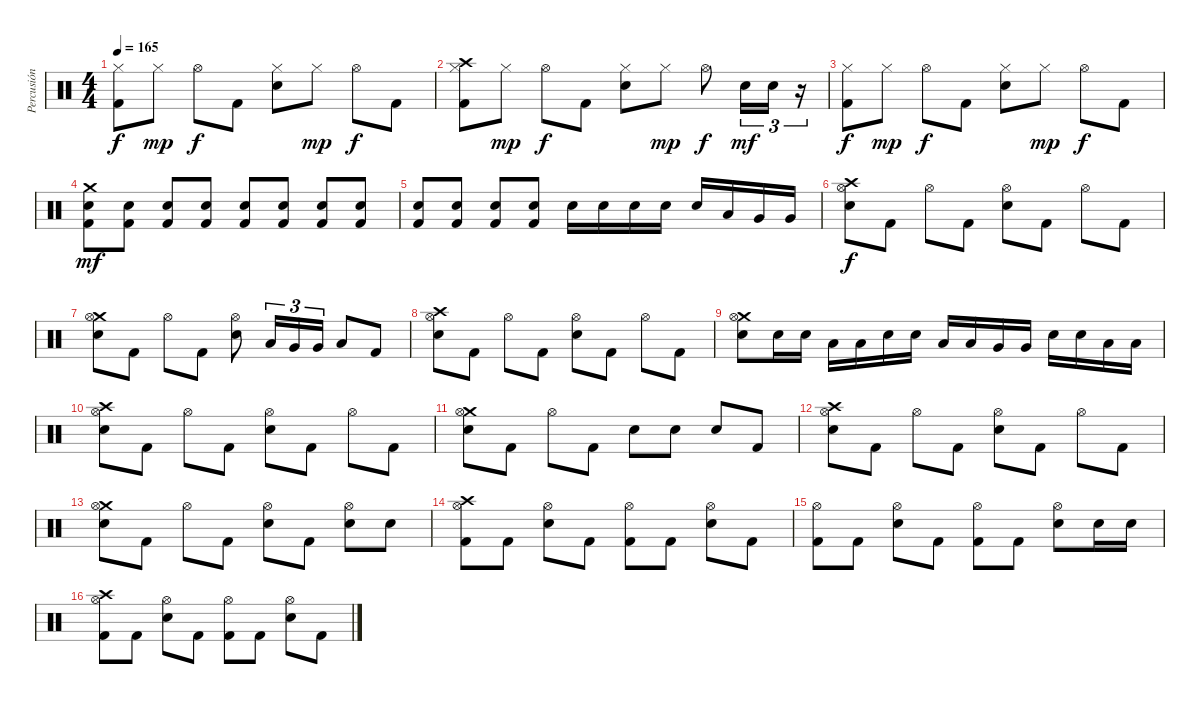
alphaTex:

\track ("Percusión" "Percusión") {instrument percussion}
\staff {score}
\articulation defaults
\ts (4 4)
\tempo 165
\clef neutral
\ks c
("Hi-Hat (closed)" "Kick (hit) 2").8{dy f} "Hi-Hat (closed)".8{dy mp} "Hi-Hat (open)".8{dy f} "Kick (hit) 2".8 ("Hi-Hat (closed)" "Electric Snare (hit)").8 "Hi-Hat (closed)".8{dy mp} "Hi-Hat (open)".8{dy f} "Kick (hit) 2".8 |
("Crash high (hit)" "Hi-Hat (closed)" "Kick (hit) 2").8 "Hi-Hat (closed)".8{dy mp} "Hi-Hat (open)".8{dy f} "Kick (hit) 2".8 ("Hi-Hat (closed)" "Electric Snare (hit)").8 "Hi-Hat (closed)".8{dy mp} "Hi-Hat (open)".8{dy f} "Electric Snare (hit)".16{tu (3 2) dy mf} "Electric Snare (hit)".16{tu (3 2)} r.16{tu (3 2)} |
("Hi-Hat (closed)" "Kick (hit) 2").8{dy f} "Hi-Hat (closed)".8{dy mp} "Hi-Hat (open)".8{dy f} "Kick (hit) 2".8 ("Hi-Hat (closed)" "Electric Snare (hit)").8 "Hi-Hat (closed)".8{dy mp} "Hi-Hat (open)".8{dy f} "Kick (hit) 2".8 |
("Crash medium (hit)" "Electric Snare (hit)" "Kick (hit) 2").8{dy mf} ("Electric Snare (hit)" "Kick (hit) 2").8 ("Electric Snare (hit)" "Kick (hit) 2").8 ("Electric Snare (hit)" "Kick (hit) 2").8 ("Electric Snare (hit)" "Kick (hit) 2").8 ("Electric Snare (hit)" "Kick (hit) 2").8 ("Electric Snare (hit)" "Kick (hit) 2").8 ("Electric Snare (hit)" "Kick (hit) 2").8 |
("Electric Snare (hit)" "Kick (hit) 2").8 ("Electric Snare (hit)" "Kick (hit) 2").8 ("Electric Snare (hit)" "Kick (hit) 2").8 ("Electric Snare (hit)" "Kick (hit) 2").8 "Electric Snare (hit)".16 "Electric Snare (hit)".16 "Electric Snare (hit)".16 "Electric Snare (hit)".16 "Electric Snare (hit)".16 "Low Tom (hit)".16 "Very Low Tom (hit)".16 "Very Low Tom (hit)".16 |
("Crash high (hit)" "Hi-Hat (open)" "Snare (hit) 2").8{dy f} "Kick (hit) 2".8 "Hi-Hat (open)".8 "Kick (hit) 2".8 ("Hi-Hat (open)" "Snare (hit) 2").8 "Kick (hit) 2".8 "Hi-Hat (open)".8 "Kick (hit) 2".8 |
("Crash medium (hit)" "Hi-Hat (open)" "Snare (hit) 2").8 "Kick (hit) 2".8 "Hi-Hat (open)".8 "Kick (hit) 2".8 ("Hi-Hat (open)" "Snare (hit) 2").8 "Low Tom (hit)".16{tu (3 2)} "Very Low Tom (hit)".16{tu (3 2)} "Very Low Tom (hit)".16{tu (3 2)} "Low Tom (hit)".8 "Kick (hit) 2".8 |
("Crash high (hit)" "Hi-Hat (open)" "Snare (hit) 2").8 "Kick (hit) 2".8 "Hi-Hat (open)".8 "Kick (hit) 2".8 ("Hi-Hat (open)" "Snare (hit) 2").8 "Kick (hit) 2".8 "Hi-Hat (open)".8 "Kick (hit) 2".8 |
("Crash medium (hit)" "Hi-Hat (open)" "Snare (hit) 2").8 "Snare (hit) 2".16 "Snare (hit) 2".16 "Low Tom (hit)".16 "Low Tom (hit)".16 "Snare (hit) 2".16 "Snare (hit) 2".16 "Low Tom (hit)".16 "Low Tom (hit)".16 "Very Low Tom (hit)".16 "Very Low Tom (hit)".16 "Snare (hit) 2".16 "Snare (hit) 2".16 "Low Tom (hit)".16 "Low Tom (hit)".16 |
("Crash high (hit)" "Hi-Hat (open)" "Snare (hit) 2").8 "Kick (hit) 2".8 "Hi-Hat (open)".8 "Kick (hit) 2".8 ("Hi-Hat (open)" "Snare (hit) 2").8 "Kick (hit) 2".8 "Hi-Hat (open)".8 "Kick (hit) 2".8 |
("Crash medium (hit)" "Hi-Hat (open)" "Snare (hit) 2").8 "Kick (hit) 2".8 "Hi-Hat (open)".8 "Kick (hit) 2".8 "Snare (hit) 2".8 "Snare (hit) 2".8 "Snare (hit) 2".8 "Kick (hit) 2".8 |
("Crash high (hit)" "Hi-Hat (open)" "Snare (hit) 2").8 "Kick (hit) 2".8 "Hi-Hat (open)".8 "Kick (hit) 2".8 ("Hi-Hat (open)" "Snare (hit) 2").8 "Kick (hit) 2".8 "Hi-Hat (open)".8 "Kick (hit) 2".8 |
("Crash medium (hit)" "Hi-Hat (open)" "Snare (hit) 2").8 "Kick (hit) 2".8 "Hi-Hat (open)".8 "Kick (hit) 2".8 ("Hi-Hat (open)" "Snare (hit) 2").8 "Kick (hit) 2".8 ("Hi-Hat (open)" "Snare (hit) 2").8 "Snare (hit) 2".8 |
("Crash high (hit)" "Hi-Hat (open)" "Kick (hit) 2").8 "Kick (hit) 2".8 ("Hi-Hat (open)" "Snare (hit) 2").8 "Kick (hit) 2".8 ("Hi-Hat (open)" "Kick (hit) 2").8 "Kick (hit) 2".8 ("Hi-Hat (open)" "Snare (hit) 2").8 "Kick (hit) 2".8 |
("Hi-Hat (open)" "Kick (hit) 2").8 "Kick (hit) 2".8 ("Hi-Hat (open)" "Snare (hit) 2").8 "Kick (hit) 2".8 ("Hi-Hat (open)" "Kick (hit) 2").8 "Kick (hit) 2".8 ("Hi-Hat (open)" "Snare (hit) 2").8 "Snare (hit) 2".16 "Snare (hit) 2".16 |
("Crash high (hit)" "Hi-Hat (open)" "Kick (hit) 2").8 "Kick (hit) 2".8 ("Hi-Hat (open)" "Snare (hit) 2").8 "Kick (hit) 2".8 ("Hi-Hat (open)" "Kick (hit) 2").8 "Kick (hit) 2".8 ("Hi-Hat (open)" "Snare (hit) 2").8 "Kick (hit) 2".8
